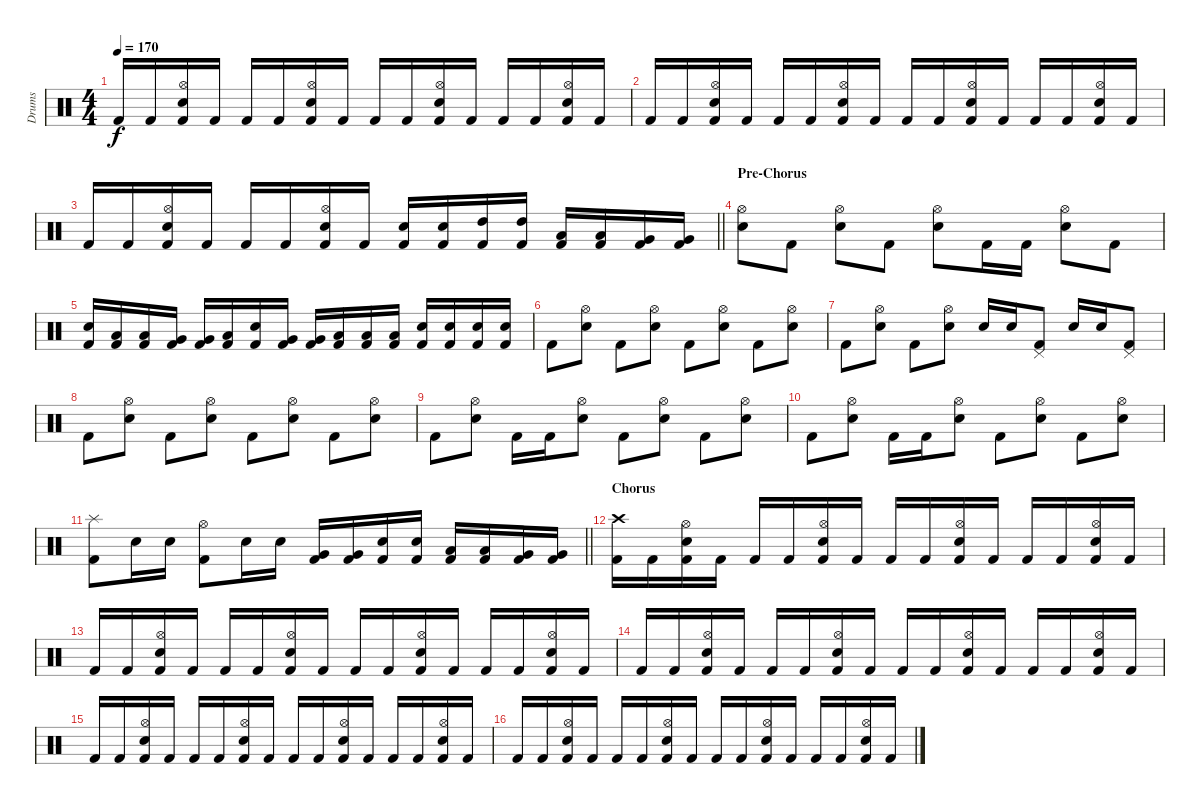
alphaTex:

\track ("Drums" "Drums") {instrument percussion}
\staff {score}
\articulation defaults
\ts (4 4)
\tempo 170
\clef neutral
\ks c "Kick (hit) 2".16{dy f} "Kick (hit) 2".16
("Hi-Hat (open)" "Electric Snare (hit)" "Kick (hit) 2").16 "Kick (hit) 2".16 "Kick (hit) 2".16 "Kick (hit) 2".16 ("Hi-Hat (open)" "Electric Snare (hit)" "Kick (hit) 2").16 "Kick (hit) 2".16 "Kick (hit) 2".16 "Kick (hit) 2".16 ("Hi-Hat (open)" "Electric Snare (hit)" "Kick (hit) 2").16 "Kick (hit) 2".16 "Kick (hit) 2".16 "Kick (hit) 2".16 ("Hi-Hat (open)" "Electric Snare (hit)" "Kick (hit) 2").16 "Kick (hit) 2".16 |
"Kick (hit) 2".16 "Kick (hit) 2".16 ("Hi-Hat (open)" "Electric Snare (hit)" "Kick (hit) 2").16 "Kick (hit) 2".16 "Kick (hit) 2".16 "Kick (hit) 2".16 ("Hi-Hat (open)" "Electric Snare (hit)" "Kick (hit) 2").16 "Kick (hit) 2".16 "Kick (hit) 2".16 "Kick (hit) 2".16 ("Hi-Hat (open)" "Electric Snare (hit)" "Kick (hit) 2").16 "Kick (hit) 2".16 "Kick (hit) 2".16 "Kick (hit) 2".16 ("Hi-Hat (open)" "Electric Snare (hit)" "Kick (hit) 2").16 "Kick (hit) 2".16 |
\barLineRight lightlight "Kick (hit) 2".16 "Kick (hit) 2".16
("Hi-Hat (open)" "Electric Snare (hit)" "Kick (hit) 2").16 "Kick (hit) 2".16 "Kick (hit) 2".16 "Kick (hit) 2".16 ("Hi-Hat (open)" "Electric Snare (hit)" "Kick (hit) 2").16 "Kick (hit) 2".16 ("Electric Snare (hit)" "Kick (hit) 2").16 ("Electric Snare (hit)" "Kick (hit) 2").16 ("High Tom (hit)" "Kick (hit) 2").16 ("High Tom (hit)" "Kick (hit) 2").16 ("Low Tom (hit)" "Kick (hit) 2").16 ("Low Tom (hit)" "Kick (hit) 2").16 ("Very Low Tom (hit)" "Kick (hit) 2").16 ("Very Low Tom (hit)" "Kick (hit) 2").16 |
\section ("" "Pre-Chorus")
("Hi-Hat (open)" "Electric Snare (hit)").8 "Kick (hit) 2".8 ("Hi-Hat (open)" "Electric Snare (hit)").8 "Kick (hit) 2".8 ("Hi-Hat (open)" "Electric Snare (hit)").8 "Kick (hit) 2".16 "Kick (hit) 2".16 ("Hi-Hat (open)" "Electric Snare (hit)").8 "Kick (hit) 2".8 |
("Electric Snare (hit)" "Kick (hit) 2").16 ("Low Tom (hit)" "Kick (hit) 2").16 ("Low Tom (hit)" "Kick (hit) 2").16 ("Very Low Tom (hit)" "Kick (hit) 2").16 ("Very Low Tom (hit)" "Kick (hit) 2").16 ("Low Floor Tom (hit)" "Kick (hit) 2").16 ("Electric Snare (hit)" "Kick (hit) 2").16 ("Very Low Tom (hit)" "Kick (hit) 2").16 ("Very Low Tom (hit)" "Kick (hit) 2").16 ("Low Floor Tom (hit)" "Kick (hit) 2").16 ("Low Floor Tom (hit)" "Kick (hit) 2").16 ("Low Tom (hit)" "Kick (hit) 2").16 ("Electric Snare (hit)" "Kick (hit) 2").16 ("Electric Snare (hit)" "Kick (hit) 2").16 ("Electric Snare (hit)" "Kick (hit) 2").16 ("Electric Snare (hit)" "Kick (hit) 2").16 |
"Kick (hit) 2".8 ("Hi-Hat (open)" "Electric Snare (hit)").8 "Kick (hit) 2".8 ("Hi-Hat (open)" "Electric Snare (hit)").8 "Kick (hit) 2".8 ("Hi-Hat (open)" "Electric Snare (hit)").8 "Kick (hit) 2".8 ("Hi-Hat (open)" "Electric Snare (hit)").8 |
"Kick (hit) 2".8 ("Hi-Hat (open)" "Electric Snare (hit)").8 "Kick (hit) 2".8 ("Hi-Hat (open)" "Electric Snare (hit)").8 "Electric Snare (hit)".16 "Electric Snare (hit)".16 ("Pedal Hi-Hat (hit)" "Kick (hit) 2").8 "Electric Snare (hit)".16 "Electric Snare (hit)".16 ("Pedal Hi-Hat (hit)" "Kick (hit) 2").8 |
"Kick (hit) 2".8 ("Hi-Hat (open)" "Electric Snare (hit)").8 "Kick (hit) 2".8 ("Hi-Hat (open)" "Electric Snare (hit)").8 "Kick (hit) 2".8 ("Hi-Hat (open)" "Electric Snare (hit)").8 "Kick (hit) 2".8 ("Hi-Hat (open)" "Electric Snare (hit)").8 |
"Kick (hit) 2".8 ("Hi-Hat (open)" "Electric Snare (hit)").8 "Kick (hit) 2".16 "Kick (hit) 2".16 ("Hi-Hat (open)" "Electric Snare (hit)").8 "Kick (hit) 2".8 ("Hi-Hat (open)" "Electric Snare (hit)").8 "Kick (hit) 2".8 ("Hi-Hat (open)" "Electric Snare (hit)").8 |
"Kick (hit) 2".8 ("Hi-Hat (open)" "Electric Snare (hit)").8 "Kick (hit) 2".16 "Kick (hit) 2".16 ("Hi-Hat (open)" "Electric Snare (hit)").8 "Kick (hit) 2".8 ("Hi-Hat (open)" "Electric Snare (hit)").8 "Kick (hit) 2".8 ("Hi-Hat (open)" "Electric Snare (hit)").8 |
\barLineRight lightlight
("Splash (hit)" "Kick (hit) 2").8 "Electric Snare (hit)".16 "Electric Snare (hit)".16 ("Hi-Hat (open)" "Kick (hit) 2").8 "Electric Snare (hit)".16 "Electric Snare (hit)".16 ("Very Low Tom (hit)" "Kick (hit) 2").16 ("Very Low Tom (hit)" "Kick (hit) 2").16 ("Electric Snare (hit)" "Kick (hit) 2").16 ("Electric Snare (hit)" "Kick (hit) 2").16 ("Low Tom (hit)" "Kick (hit) 2").16 ("Low Tom (hit)" "Kick (hit) 2").16 ("Very Low Tom (hit)" "Kick (hit) 2").16 ("Very Low Tom (hit)" "Kick (hit) 2").16 |
\section ("" "Chorus")
("Crash high (hit)" "Kick (hit) 2").16 "Kick (hit) 2".16 ("Hi-Hat (open)" "Electric Snare (hit)" "Kick (hit) 2").16 "Kick (hit) 2".16 "Kick (hit) 2".16 "Kick (hit) 2".16 ("Hi-Hat (open)" "Electric Snare (hit)" "Kick (hit) 2").16 "Kick (hit) 2".16 "Kick (hit) 2".16 "Kick (hit) 2".16 ("Hi-Hat (open)" "Electric Snare (hit)" "Kick (hit) 2").16 "Kick (hit) 2".16 "Kick (hit) 2".16 "Kick (hit) 2".16 ("Hi-Hat (open)" "Electric Snare (hit)" "Kick (hit) 2").16 "Kick (hit) 2".16 |
"Kick (hit) 2".16 "Kick (hit) 2".16 ("Hi-Hat (open)" "Electric Snare (hit)" "Kick (hit) 2").16 "Kick (hit) 2".16 "Kick (hit) 2".16 "Kick (hit) 2".16 ("Hi-Hat (open)" "Electric Snare (hit)" "Kick (hit) 2").16 "Kick (hit) 2".16 "Kick (hit) 2".16 "Kick (hit) 2".16 ("Hi-Hat (open)" "Electric Snare (hit)" "Kick (hit) 2").16 "Kick (hit) 2".16 "Kick (hit) 2".16 "Kick (hit) 2".16 ("Hi-Hat (open)" "Electric Snare (hit)" "Kick (hit) 2").16 "Kick (hit) 2".16 |
"Kick (hit) 2".16 "Kick (hit) 2".16 ("Hi-Hat (open)" "Electric Snare (hit)" "Kick (hit) 2").16 "Kick (hit) 2".16 "Kick (hit) 2".16 "Kick (hit) 2".16 ("Hi-Hat (open)" "Electric Snare (hit)" "Kick (hit) 2").16 "Kick (hit) 2".16 "Kick (hit) 2".16 "Kick (hit) 2".16 ("Hi-Hat (open)" "Electric Snare (hit)" "Kick (hit) 2").16 "Kick (hit) 2".16 "Kick (hit) 2".16 "Kick (hit) 2".16 ("Hi-Hat (open)" "Electric Snare (hit)" "Kick (hit) 2").16 "Kick (hit) 2".16 |
"Kick (hit) 2".16 "Kick (hit) 2".16 ("Hi-Hat (open)" "Electric Snare (hit)" "Kick (hit) 2").16 "Kick (hit) 2".16 "Kick (hit) 2".16 "Kick (hit) 2".16 ("Hi-Hat (open)" "Electric Snare (hit)" "Kick (hit) 2").16 "Kick (hit) 2".16 "Kick (hit) 2".16 "Kick (hit) 2".16 ("Hi-Hat (open)" "Electric Snare (hit)" "Kick (hit) 2").16 "Kick (hit) 2".16 "Kick (hit) 2".16 "Kick (hit) 2".16 ("Hi-Hat (open)" "Electric Snare (hit)" "Kick (hit) 2").16 "Kick (hit) 2".16 |
"Kick (hit) 2".16 "Kick (hit) 2".16 ("Hi-Hat (open)" "Electric Snare (hit)" "Kick (hit) 2").16 "Kick (hit) 2".16 "Kick (hit) 2".16 "Kick (hit) 2".16 ("Hi-Hat (open)" "Electric Snare (hit)" "Kick (hit) 2").16 "Kick (hit) 2".16 "Kick (hit) 2".16 "Kick (hit) 2".16 ("Hi-Hat (open)" "Electric Snare (hit)" "Kick (hit) 2").16 "Kick (hit) 2".16 "Kick (hit) 2".16 "Kick (hit) 2".16 ("Hi-Hat (open)" "Electric Snare (hit)" "Kick (hit) 2").16 "Kick (hit) 2".16
